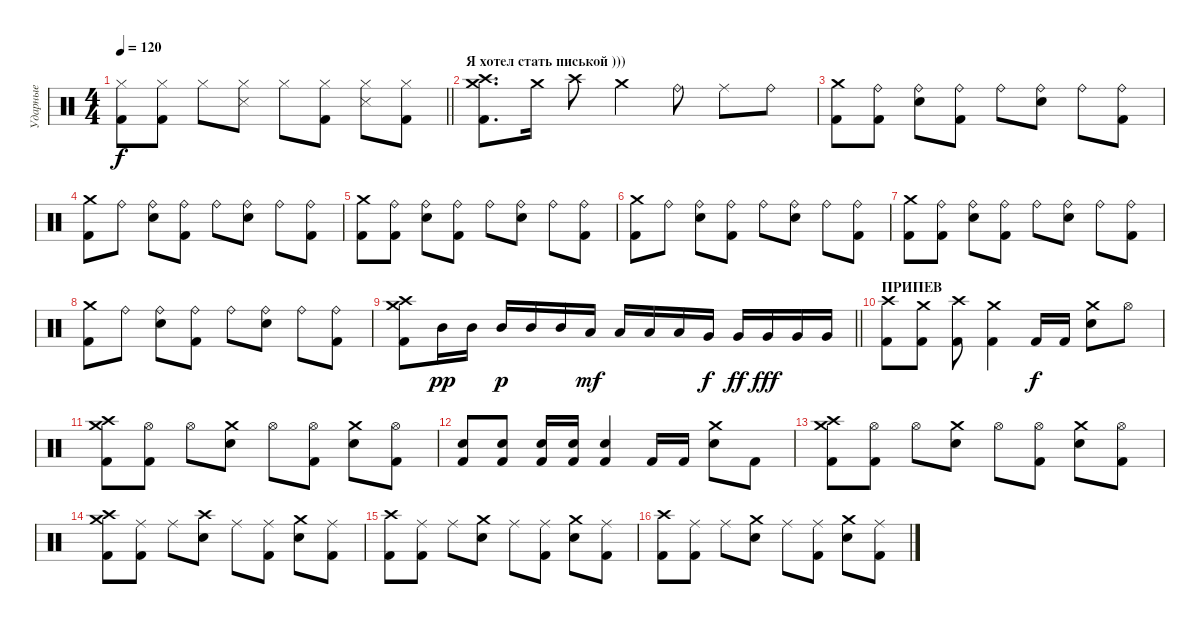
\track ("Ударные" "Ударные") {instrument percussion}
\staff
\articulation defaults
\ts (4 4)
\tempo 120
\clef neutral
\barLineRight lightlight
\ks c
("Hi-Hat (closed)" "Kick (hit) 2").8{dy f} ("Hi-Hat (closed)" "Kick (hit) 2").8 "Hi-Hat (closed)".8 ("Hi-Hat (closed)" "Snare (side stick) 3").8 "Hi-Hat (closed)".8 ("Hi-Hat (closed)" "Kick (hit) 2").8 ("Hi-Hat (closed)" "Snare (side stick) 3").8 ("Hi-Hat (closed)" "Kick (hit) 2").8 |
\section ("" "Я хотел стать писькой )))")
("Crash high (hit)" "Crash medium (hit)" "Kick (hit) 2").8{d} "Crash medium (hit)".16 "Crash high (hit)".8 "Crash medium (hit)".4 "Ride (bell)".8 "Ride (middle)".8 "Ride (bell)".8 |
("Crash medium (hit)" "Kick (hit) 2").8 ("Ride (bell)" "Kick (hit) 2").8 ("Ride (bell)" "Electric Snare (hit)").8 ("Ride (bell)" "Kick (hit) 2").8 "Ride (bell)".8 ("Ride (bell)" "Electric Snare (hit)").8 "Ride (bell)".8 ("Ride (bell)" "Kick (hit) 2").8 |
("Crash medium (hit)" "Kick (hit) 2").8 "Ride (bell)".8 ("Ride (bell)" "Electric Snare (hit)").8 ("Ride (bell)" "Kick (hit) 2").8 "Ride (bell)".8 ("Ride (bell)" "Electric Snare (hit)").8 "Ride (bell)".8 ("Ride (bell)" "Kick (hit) 2").8 |
("Crash medium (hit)" "Kick (hit) 2").8 ("Ride (bell)" "Kick (hit) 2").8 ("Ride (bell)" "Electric Snare (hit)").8 ("Ride (bell)" "Kick (hit) 2").8 "Ride (bell)".8 ("Ride (bell)" "Electric Snare (hit)").8 "Ride (bell)".8 ("Ride (bell)" "Kick (hit) 2").8 |
("Crash medium (hit)" "Kick (hit) 2").8 "Ride (bell)".8 ("Ride (bell)" "Electric Snare (hit)").8 ("Ride (bell)" "Kick (hit) 2").8 "Ride (bell)".8 ("Ride (bell)" "Electric Snare (hit)").8 "Ride (bell)".8 ("Ride (bell)" "Kick (hit) 2").8 |
("Crash medium (hit)" "Kick (hit) 2").8 ("Ride (bell)" "Kick (hit) 2").8 ("Ride (bell)" "Electric Snare (hit)").8 ("Ride (bell)" "Kick (hit) 2").8 "Ride (bell)".8 ("Ride (bell)" "Electric Snare (hit)").8 "Ride (bell)".8 ("Ride (bell)" "Kick (hit) 2").8 |
("Crash medium (hit)" "Kick (hit) 2").8 "Ride (bell)".8 ("Ride (bell)" "Electric Snare (hit)").8 ("Ride (bell)" "Kick (hit) 2").8 "Ride (bell)".8 ("Ride (bell)" "Electric Snare (hit)").8 "Ride (bell)".8 ("Ride (bell)" "Kick (hit) 2").8 |
\barLineRight lightlight
("Crash high (hit)" "Crash medium (hit)" "Kick (hit) 2").8 "Mid Tom (hit)".16{dy pp} "Mid Tom (hit)".16 "Mid Tom (hit)".16{dy p} "Mid Tom (hit)".16 "Mid Tom (hit)".16 "Low Tom (hit)".16{dy mf} "Low Tom (hit)".16 "Low Tom (hit)".16 "Low Tom (hit)".16 "Very Low Tom (hit)".16{dy f} "Very Low Tom (hit)".16{dy ff} "Very Low Tom (hit)".16{dy fff} "Very Low Tom (hit)".16 "Very Low Tom (hit)".16 |
\section ("" "ПРИПЕВ")
("Crash high (hit)" "Kick (hit) 2").8 ("Crash medium (hit)" "Kick (hit) 2").8 ("Crash high (hit)" "Kick (hit) 2").8 ("Crash medium (hit)" "Kick (hit) 2").4 "Kick (hit) 2".16{dy f} "Kick (hit) 2".16 ("Crash medium (hit)" "Electric Snare (hit)").8 "Hi-Hat (open)".8 |
("Crash high (hit)" "Crash medium (hit)" "Kick (hit) 2").8 ("Hi-Hat (open)" "Kick (hit) 2").8 "Hi-Hat (open)".8 ("Crash medium (hit)" "Electric Snare (hit)").8 "Hi-Hat (open)".8 ("Hi-Hat (open)" "Kick (hit) 2").8 ("Crash medium (hit)" "Electric Snare (hit)").8 ("Hi-Hat (open)" "Kick (hit) 2").8 |
("Electric Snare (hit)" "Kick (hit) 2").8 ("Electric Snare (hit)" "Kick (hit) 2").8 ("Electric Snare (hit)" "Kick (hit) 2").16 ("Electric Snare (hit)" "Kick (hit) 2").16 ("Electric Snare (hit)" "Kick (hit) 2").4 "Kick (hit) 2".16 "Kick (hit) 2".16 ("Crash medium (hit)" "Electric Snare (hit)").8 "Kick (hit) 2".8 |
("Crash high (hit)" "Crash medium (hit)" "Kick (hit) 2").8 ("Hi-Hat (open)" "Kick (hit) 2").8 "Hi-Hat (open)".8 ("Crash medium (hit)" "Electric Snare (hit)").8 "Hi-Hat (open)".8 ("Hi-Hat (open)" "Kick (hit) 2").8 ("Crash medium (hit)" "Electric Snare (hit)").8 ("Hi-Hat (open)" "Kick (hit) 2").8 |
("Crash high (hit)" "Crash medium (hit)" "Kick (hit) 2").8 ("Ride (middle)" "Kick (hit) 2").8 "Ride (middle)".8 ("Crash high (hit)" "Electric Snare (hit)").8 "Ride (middle)".8 ("Ride (middle)" "Kick (hit) 2").8 ("Crash medium (hit)" "Electric Snare (hit)").8 ("Ride (middle)" "Kick (hit) 2").8 |
("Crash high (hit)" "Kick (hit) 2").8 ("Ride (middle)" "Kick (hit) 2").8 "Ride (middle)".8 ("Crash medium (hit)" "Electric Snare (hit)").8 "Ride (middle)".8 ("Ride (middle)" "Kick (hit) 2").8 ("Crash medium (hit)" "Electric Snare (hit)").8 ("Ride (middle)" "Kick (hit) 2").8 |
("Crash high (hit)" "Kick (hit) 2").8 ("Ride (middle)" "Kick (hit) 2").8 "Ride (middle)".8 ("Crash medium (hit)" "Electric Snare (hit)").8 "Ride (middle)".8 ("Ride (middle)" "Kick (hit) 2").8 ("Crash medium (hit)" "Electric Snare (hit)").8 ("Ride (middle)" "Kick (hit) 2").8
